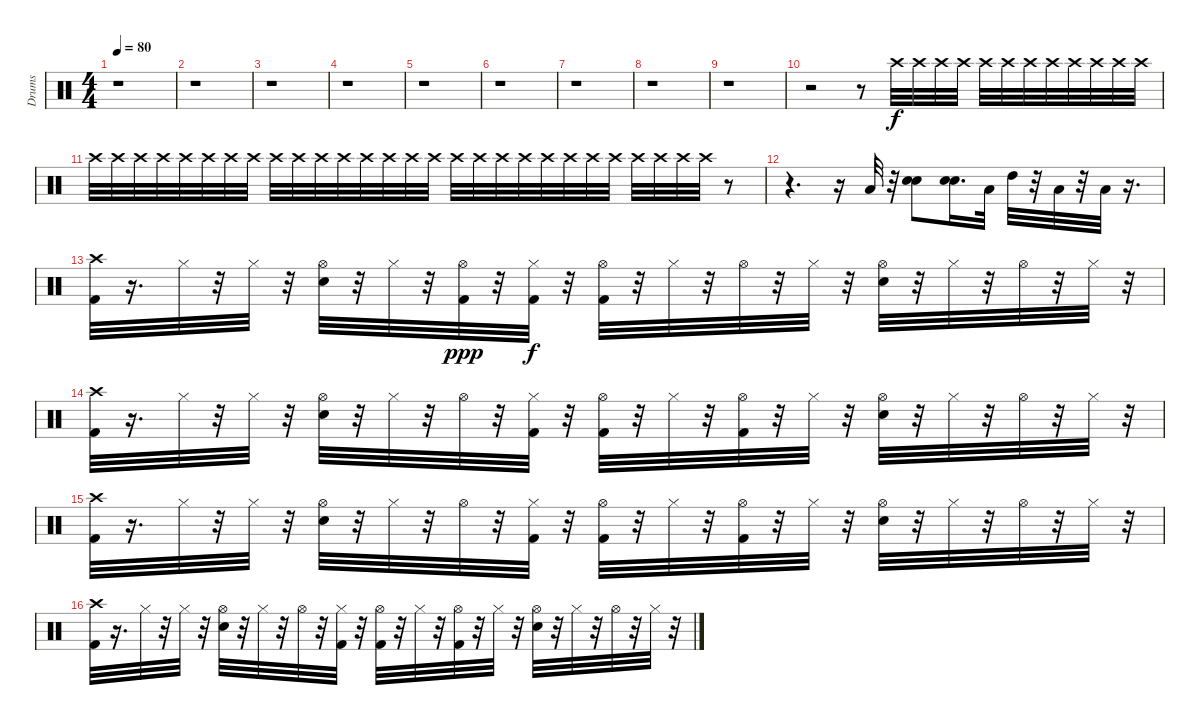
\track ("Drums" "Drums") {instrument percussion}
\staff {score}
\articulation defaults
\ts (4 4)
\tempo 80
\clef neutral
\ks c
r.1{dy f} |
r.1 |
r.1 |
r.1 |
r.1 |
r.1 |
r.1 |
r.1 |
r.1 |
r.2 r.8 "Crash high (hit)".32 "Crash high (hit)".32 "Crash high (hit)".32 "Crash high (hit)".32 "Crash high (hit)".32 "Crash high (hit)".32 "Crash high (hit)".32 "Crash high (hit)".32 "Crash high (hit)".32 "Crash high (hit)".32 "Crash high (hit)".32 "Crash high (hit)".32 |
"Crash high (hit)".32 "Crash high (hit)".32 "Crash high (hit)".32 "Crash high (hit)".32 "Crash high (hit)".32 "Crash high (hit)".32 "Crash high (hit)".32 "Crash high (hit)".32 "Crash high (hit)".32 "Crash high (hit)".32 "Crash high (hit)".32 "Crash high (hit)".32 "Crash high (hit)".32 "Crash high (hit)".32 "Crash high (hit)".32 "Crash high (hit)".32 "Crash high (hit)".32 "Crash high (hit)".32 "Crash high (hit)".32 "Crash high (hit)".32 "Crash high (hit)".32 "Crash high (hit)".32 "Crash high (hit)".32 "Crash high (hit)".32 "Crash high (hit)".32 "Crash high (hit)".32 "Crash high (hit)".32 "Crash high (hit)".32 r.8 |
r.4{d} r.16 "Low Floor Tom (hit)".32 r.32 ("Snare (hit) 2" "Snare (hit) 2").8 ("Snare (hit) 2" "Snare (hit) 2").16{d} "Low Floor Tom (hit)".32 "High Tom (hit)".32 r.32 "Low Tom (hit)".32 r.32 "Low Floor Tom (hit)".32 r.16{d} |
("Kick (hit) 2" "Crash high (hit)").32 r.16{d} "Hi-Hat (closed)".32 r.32 "Hi-Hat (closed)".32 r.32 ("Snare (hit) 2" "Hi-Hat (open)").32 r.32 "Hi-Hat (closed)".32 r.32 ("Kick (hit) 2" "Hi-Hat (open)").32{dy ppp} r.32 ("Kick (hit) 2" "Hi-Hat (closed)").32{dy f} r.32 ("Kick (hit) 2" "Hi-Hat (open)").32 r.32 "Hi-Hat (closed)".32 r.32 "Hi-Hat (open)".32 r.32 "Hi-Hat (closed)".32 r.32 ("Snare (hit) 2" "Hi-Hat (open)").32 r.32 "Hi-Hat (closed)".32 r.32 "Hi-Hat (open)".32 r.32 "Hi-Hat (closed)".32 r.32 |
("Kick (hit) 2" "Crash high (hit)").32 r.16{d} "Hi-Hat (closed)".32 r.32 "Hi-Hat (closed)".32 r.32 ("Snare (hit) 2" "Hi-Hat (open)").32 r.32 "Hi-Hat (closed)".32 r.32 "Hi-Hat (open)".32 r.32 ("Kick (hit) 2" "Hi-Hat (closed)").32 r.32 ("Kick (hit) 2" "Hi-Hat (open)").32 r.32 "Hi-Hat (closed)".32 r.32 ("Hi-Hat (open)" "Kick (hit) 2").32 r.32 "Hi-Hat (closed)".32 r.32 ("Snare (hit) 2" "Hi-Hat (open)").32 r.32 "Hi-Hat (closed)".32 r.32 "Hi-Hat (open)".32 r.32 "Hi-Hat (closed)".32 r.32 |
("Kick (hit) 2" "Crash high (hit)").32 r.16{d} "Hi-Hat (closed)".32 r.32 "Hi-Hat (closed)".32 r.32 ("Snare (hit) 2" "Hi-Hat (open)").32 r.32 "Hi-Hat (closed)".32 r.32 "Hi-Hat (open)".32 r.32 ("Kick (hit) 2" "Hi-Hat (closed)").32 r.32 ("Kick (hit) 2" "Hi-Hat (open)").32 r.32 "Hi-Hat (closed)".32 r.32 ("Hi-Hat (open)" "Kick (hit) 2").32 r.32 "Hi-Hat (closed)".32 r.32 ("Snare (hit) 2" "Hi-Hat (open)").32 r.32 "Hi-Hat (closed)".32 r.32 "Hi-Hat (open)".32 r.32 "Hi-Hat (closed)".32 r.32 |
("Kick (hit) 2" "Crash high (hit)").32 r.16{d} "Hi-Hat (closed)".32 r.32 "Hi-Hat (closed)".32 r.32 ("Snare (hit) 2" "Hi-Hat (open)").32 r.32 "Hi-Hat (closed)".32 r.32 "Hi-Hat (open)".32 r.32 ("Kick (hit) 2" "Hi-Hat (closed)").32 r.32 ("Kick (hit) 2" "Hi-Hat (open)").32 r.32 "Hi-Hat (closed)".32 r.32 ("Hi-Hat (open)" "Kick (hit) 2").32 r.32 "Hi-Hat (closed)".32 r.32 ("Snare (hit) 2" "Hi-Hat (open)").32 r.32 "Hi-Hat (closed)".32 r.32 "Hi-Hat (open)".32 r.32 "Hi-Hat (closed)".32 r.32
